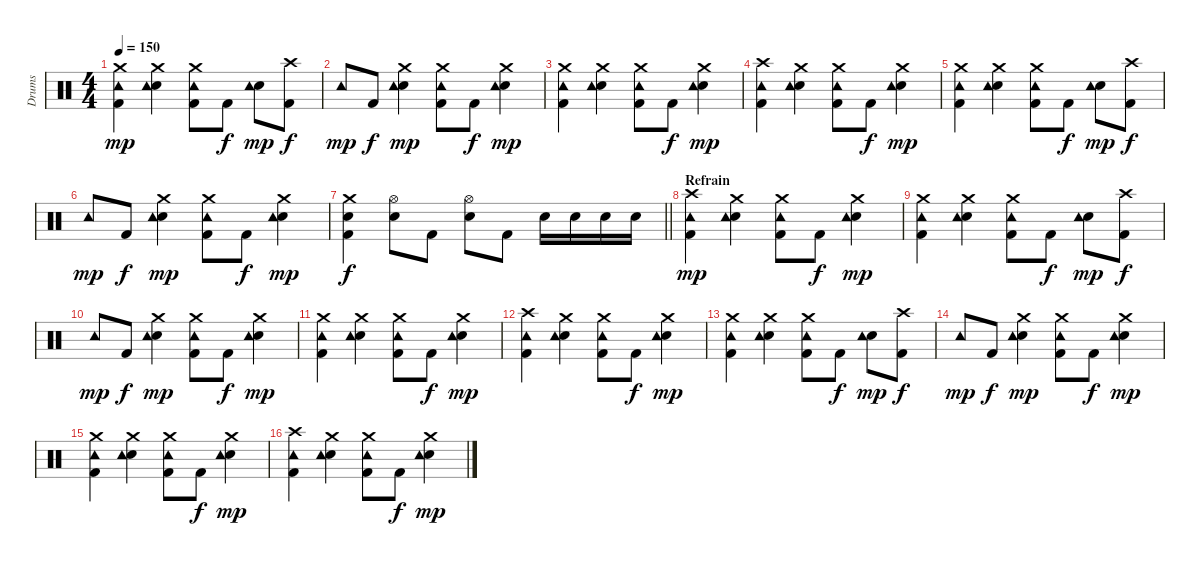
\track ("Drums" "Drums") {instrument percussion}
\staff {score}
\articulation defaults
\ts (4 4)
\tempo 150
\clef neutral
\ks c
("Crash medium (hit)" "Kick (hit) 2" "Tambourine (hit)").4{dy mp} ("Crash medium (hit)" "Snare (hit) 2" "Tambourine (hit)").4 ("Crash medium (hit)" "Kick (hit) 2" "Tambourine (hit)").8 "Kick (hit) 2".8{dy f} ("Snare (hit) 2" "Tambourine (hit)").8{dy mp} ("Crash high (hit)" "Kick (hit) 2").8{dy f} |
"Tambourine (hit)".8{dy mp} "Kick (hit) 2".8{dy f} ("Crash medium (hit)" "Snare (hit) 2" "Tambourine (hit)").4{dy mp} ("Crash medium (hit)" "Kick (hit) 2" "Tambourine (hit)").8 "Kick (hit) 2".8{dy f} ("Crash medium (hit)" "Snare (hit) 2" "Tambourine (hit)").4{dy mp} |
("Crash medium (hit)" "Kick (hit) 2" "Tambourine (hit)").4 ("Crash medium (hit)" "Snare (hit) 2" "Tambourine (hit)").4 ("Crash medium (hit)" "Kick (hit) 2" "Tambourine (hit)").8 "Kick (hit) 2".8{dy f} ("Crash medium (hit)" "Snare (hit) 2" "Tambourine (hit)").4{dy mp} |
("Crash high (hit)" "Kick (hit) 2" "Tambourine (hit)").4 ("Crash medium (hit)" "Snare (hit) 2" "Tambourine (hit)").4 ("Crash medium (hit)" "Kick (hit) 2" "Tambourine (hit)").8 "Kick (hit) 2".8{dy f} ("Crash medium (hit)" "Snare (hit) 2" "Tambourine (hit)").4{dy mp} |
("Crash medium (hit)" "Kick (hit) 2" "Tambourine (hit)").4 ("Crash medium (hit)" "Snare (hit) 2" "Tambourine (hit)").4 ("Crash medium (hit)" "Kick (hit) 2" "Tambourine (hit)").8 "Kick (hit) 2".8{dy f} ("Snare (hit) 2" "Tambourine (hit)").8{dy mp} ("Crash high (hit)" "Kick (hit) 2").8{dy f} |
"Tambourine (hit)".8{dy mp} "Kick (hit) 2".8{dy f} ("Crash medium (hit)" "Snare (hit) 2" "Tambourine (hit)").4{dy mp} ("Crash medium (hit)" "Kick (hit) 2" "Tambourine (hit)").8 "Kick (hit) 2".8{dy f} ("Crash medium (hit)" "Snare (hit) 2" "Tambourine (hit)").4{dy mp} |
\barLineRight lightlight
("Crash medium (hit)" "Snare (hit) 2" "Kick (hit) 2").4{dy f} ("Hi-Hat (open)" "Snare (hit) 2").8 "Kick (hit) 2".8 ("Hi-Hat (open)" "Snare (hit) 2").8 "Kick (hit) 2".8 "Snare (hit) 2".16 "Snare (hit) 2".16 "Snare (hit) 2".16 "Snare (hit) 2".16 |
\section ("" "Refrain")
("Crash high (hit)" "Kick (hit) 2" "Tambourine (hit)").4{dy mp} ("Crash medium (hit)" "Snare (hit) 2" "Tambourine (hit)").4 ("Crash medium (hit)" "Kick (hit) 2" "Tambourine (hit)").8 "Kick (hit) 2".8{dy f} ("Crash medium (hit)" "Snare (hit) 2" "Tambourine (hit)").4{dy mp} |
("Crash medium (hit)" "Kick (hit) 2" "Tambourine (hit)").4 ("Crash medium (hit)" "Snare (hit) 2" "Tambourine (hit)").4 ("Crash medium (hit)" "Kick (hit) 2" "Tambourine (hit)").8 "Kick (hit) 2".8{dy f} ("Snare (hit) 2" "Tambourine (hit)").8{dy mp} ("Crash high (hit)" "Kick (hit) 2").8{dy f} |
"Tambourine (hit)".8{dy mp} "Kick (hit) 2".8{dy f} ("Crash medium (hit)" "Snare (hit) 2" "Tambourine (hit)").4{dy mp} ("Crash medium (hit)" "Kick (hit) 2" "Tambourine (hit)").8 "Kick (hit) 2".8{dy f} ("Crash medium (hit)" "Snare (hit) 2" "Tambourine (hit)").4{dy mp} |
("Crash medium (hit)" "Kick (hit) 2" "Tambourine (hit)").4 ("Crash medium (hit)" "Snare (hit) 2" "Tambourine (hit)").4 ("Crash medium (hit)" "Kick (hit) 2" "Tambourine (hit)").8 "Kick (hit) 2".8{dy f} ("Crash medium (hit)" "Snare (hit) 2" "Tambourine (hit)").4{dy mp} |
("Crash high (hit)" "Kick (hit) 2" "Tambourine (hit)").4 ("Crash medium (hit)" "Snare (hit) 2" "Tambourine (hit)").4 ("Crash medium (hit)" "Kick (hit) 2" "Tambourine (hit)").8 "Kick (hit) 2".8{dy f} ("Crash medium (hit)" "Snare (hit) 2" "Tambourine (hit)").4{dy mp} |
("Crash medium (hit)" "Kick (hit) 2" "Tambourine (hit)").4 ("Crash medium (hit)" "Snare (hit) 2" "Tambourine (hit)").4 ("Crash medium (hit)" "Kick (hit) 2" "Tambourine (hit)").8 "Kick (hit) 2".8{dy f} ("Snare (hit) 2" "Tambourine (hit)").8{dy mp} ("Crash high (hit)" "Kick (hit) 2").8{dy f} |
"Tambourine (hit)".8{dy mp} "Kick (hit) 2".8{dy f} ("Crash medium (hit)" "Snare (hit) 2" "Tambourine (hit)").4{dy mp} ("Crash medium (hit)" "Kick (hit) 2" "Tambourine (hit)").8 "Kick (hit) 2".8{dy f} ("Crash medium (hit)" "Snare (hit) 2" "Tambourine (hit)").4{dy mp} |
("Crash medium (hit)" "Kick (hit) 2" "Tambourine (hit)").4 ("Crash medium (hit)" "Snare (hit) 2" "Tambourine (hit)").4 ("Crash medium (hit)" "Kick (hit) 2" "Tambourine (hit)").8 "Kick (hit) 2".8{dy f} ("Crash medium (hit)" "Snare (hit) 2" "Tambourine (hit)").4{dy mp} |
("Crash high (hit)" "Kick (hit) 2" "Tambourine (hit)").4 ("Crash medium (hit)" "Snare (hit) 2" "Tambourine (hit)").4 ("Crash medium (hit)" "Kick (hit) 2" "Tambourine (hit)").8 "Kick (hit) 2".8{dy f} ("Crash medium (hit)" "Snare (hit) 2" "Tambourine (hit)").4{dy mp}
